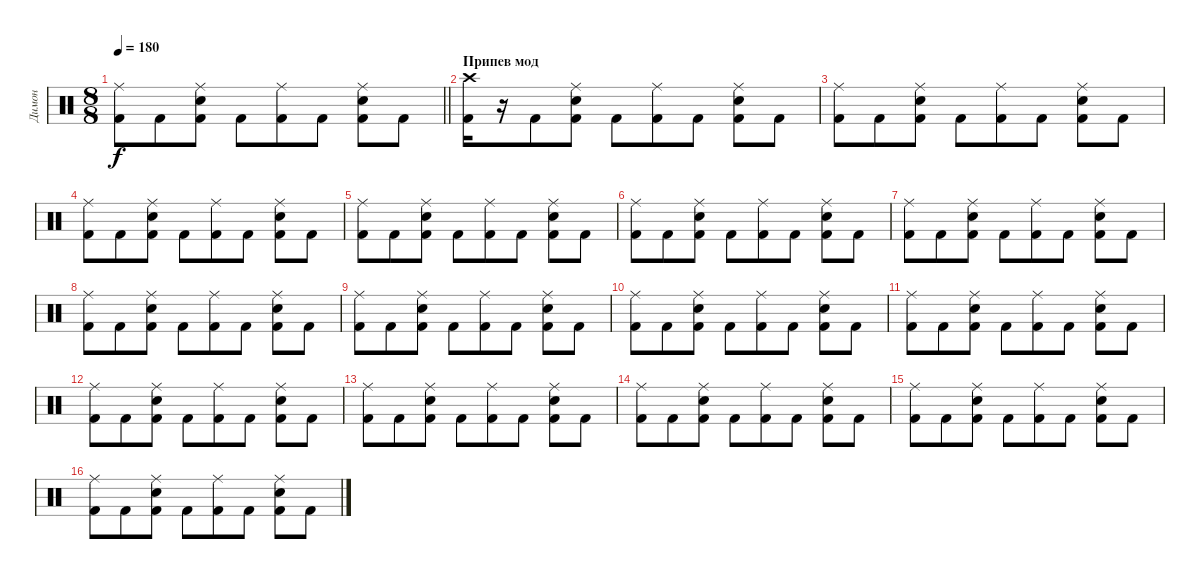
\track ("Димон" "Димон") {instrument percussion}
\staff {score}
\articulation defaults
\ts (8 8)
\tempo 180
\clef neutral
\barLineRight lightlight
\ks c
("Ride (middle)" "Kick (hit) 2").8{dy f} "Kick (hit) 2".8 ("Electric Snare (hit)" "Ride (middle)" "Kick (hit) 2").8 "Kick (hit) 2".8 ("Ride (middle)" "Kick (hit) 2").8 "Kick (hit) 2".8 ("Electric Snare (hit)" "Ride (middle)" "Kick (hit) 2").8 "Kick (hit) 2".8 |
\section ("" "Припев мод")
("Crash high (hit)" "Kick (hit) 2").16 r.16 "Kick (hit) 2".8 ("Electric Snare (hit)" "Ride (middle)" "Kick (hit) 2").8 "Kick (hit) 2".8 ("Ride (middle)" "Kick (hit) 2").8 "Kick (hit) 2".8 ("Electric Snare (hit)" "Ride (middle)" "Kick (hit) 2").8 "Kick (hit) 2".8 |
("Ride (middle)" "Kick (hit) 2").8 "Kick (hit) 2".8 ("Electric Snare (hit)" "Ride (middle)" "Kick (hit) 2").8 "Kick (hit) 2".8 ("Ride (middle)" "Kick (hit) 2").8 "Kick (hit) 2".8 ("Electric Snare (hit)" "Ride (middle)" "Kick (hit) 2").8 "Kick (hit) 2".8 |
("Ride (middle)" "Kick (hit) 2").8 "Kick (hit) 2".8 ("Electric Snare (hit)" "Ride (middle)" "Kick (hit) 2").8 "Kick (hit) 2".8 ("Ride (middle)" "Kick (hit) 2").8 "Kick (hit) 2".8 ("Electric Snare (hit)" "Ride (middle)" "Kick (hit) 2").8 "Kick (hit) 2".8 |
("Ride (middle)" "Kick (hit) 2").8 "Kick (hit) 2".8 ("Electric Snare (hit)" "Ride (middle)" "Kick (hit) 2").8 "Kick (hit) 2".8 ("Ride (middle)" "Kick (hit) 2").8 "Kick (hit) 2".8 ("Electric Snare (hit)" "Ride (middle)" "Kick (hit) 2").8 "Kick (hit) 2".8 |
("Ride (middle)" "Kick (hit) 2").8 "Kick (hit) 2".8 ("Electric Snare (hit)" "Ride (middle)" "Kick (hit) 2").8 "Kick (hit) 2".8 ("Ride (middle)" "Kick (hit) 2").8 "Kick (hit) 2".8 ("Electric Snare (hit)" "Ride (middle)" "Kick (hit) 2").8 "Kick (hit) 2".8 |
("Ride (middle)" "Kick (hit) 2").8 "Kick (hit) 2".8 ("Electric Snare (hit)" "Ride (middle)" "Kick (hit) 2").8 "Kick (hit) 2".8 ("Ride (middle)" "Kick (hit) 2").8 "Kick (hit) 2".8 ("Electric Snare (hit)" "Ride (middle)" "Kick (hit) 2").8 "Kick (hit) 2".8 |
("Ride (middle)" "Kick (hit) 2").8 "Kick (hit) 2".8 ("Electric Snare (hit)" "Ride (middle)" "Kick (hit) 2").8 "Kick (hit) 2".8 ("Ride (middle)" "Kick (hit) 2").8 "Kick (hit) 2".8 ("Electric Snare (hit)" "Ride (middle)" "Kick (hit) 2").8 "Kick (hit) 2".8 |
("Ride (middle)" "Kick (hit) 2").8 "Kick (hit) 2".8 ("Electric Snare (hit)" "Ride (middle)" "Kick (hit) 2").8 "Kick (hit) 2".8 ("Ride (middle)" "Kick (hit) 2").8 "Kick (hit) 2".8 ("Electric Snare (hit)" "Ride (middle)" "Kick (hit) 2").8 "Kick (hit) 2".8 |
("Ride (middle)" "Kick (hit) 2").8 "Kick (hit) 2".8 ("Electric Snare (hit)" "Ride (middle)" "Kick (hit) 2").8 "Kick (hit) 2".8 ("Ride (middle)" "Kick (hit) 2").8 "Kick (hit) 2".8 ("Electric Snare (hit)" "Ride (middle)" "Kick (hit) 2").8 "Kick (hit) 2".8 |
("Ride (middle)" "Kick (hit) 2").8 "Kick (hit) 2".8 ("Electric Snare (hit)" "Ride (middle)" "Kick (hit) 2").8 "Kick (hit) 2".8 ("Ride (middle)" "Kick (hit) 2").8 "Kick (hit) 2".8 ("Electric Snare (hit)" "Ride (middle)" "Kick (hit) 2").8 "Kick (hit) 2".8 |
("Ride (middle)" "Kick (hit) 2").8 "Kick (hit) 2".8 ("Electric Snare (hit)" "Ride (middle)" "Kick (hit) 2").8 "Kick (hit) 2".8 ("Ride (middle)" "Kick (hit) 2").8 "Kick (hit) 2".8 ("Electric Snare (hit)" "Ride (middle)" "Kick (hit) 2").8 "Kick (hit) 2".8 |
("Ride (middle)" "Kick (hit) 2").8 "Kick (hit) 2".8 ("Electric Snare (hit)" "Ride (middle)" "Kick (hit) 2").8 "Kick (hit) 2".8 ("Ride (middle)" "Kick (hit) 2").8 "Kick (hit) 2".8 ("Electric Snare (hit)" "Ride (middle)" "Kick (hit) 2").8 "Kick (hit) 2".8 |
("Ride (middle)" "Kick (hit) 2").8 "Kick (hit) 2".8 ("Electric Snare (hit)" "Ride (middle)" "Kick (hit) 2").8 "Kick (hit) 2".8 ("Ride (middle)" "Kick (hit) 2").8 "Kick (hit) 2".8 ("Electric Snare (hit)" "Ride (middle)" "Kick (hit) 2").8 "Kick (hit) 2".8 |
("Ride (middle)" "Kick (hit) 2").8 "Kick (hit) 2".8 ("Electric Snare (hit)" "Ride (middle)" "Kick (hit) 2").8 "Kick (hit) 2".8 ("Ride (middle)" "Kick (hit) 2").8 "Kick (hit) 2".8 ("Electric Snare (hit)" "Ride (middle)" "Kick (hit) 2").8 "Kick (hit) 2".8 |
("Ride (middle)" "Kick (hit) 2").8 "Kick (hit) 2".8 ("Electric Snare (hit)" "Ride (middle)" "Kick (hit) 2").8 "Kick (hit) 2".8 ("Ride (middle)" "Kick (hit) 2").8 "Kick (hit) 2".8 ("Electric Snare (hit)" "Ride (middle)" "Kick (hit) 2").8 "Kick (hit) 2".8
